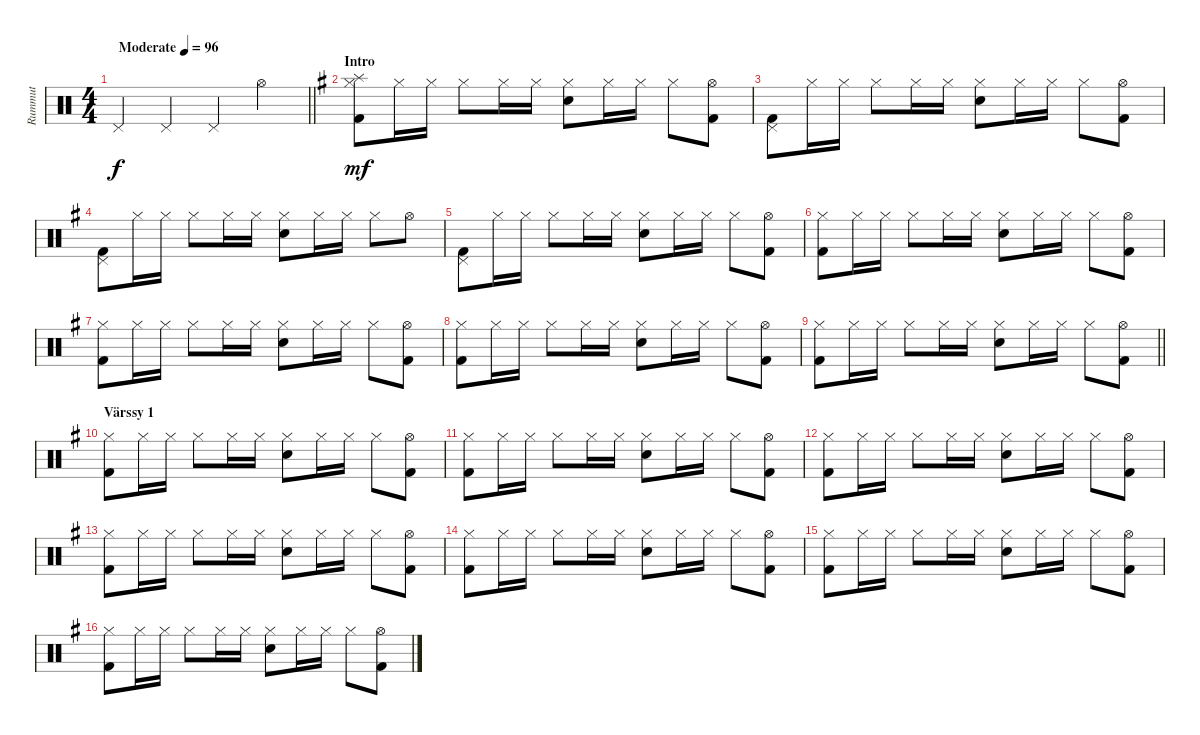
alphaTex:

\track ("Rummut" "Rummut") {instrument percussion}
\staff {score}
\articulation defaults
\ts (4 4)
\tempo (96 "Moderate")
\clef neutral
\barLineRight lightlight
\ks c "Pedal Hi-Hat (hit)".4{dy f} "Pedal Hi-Hat (hit)".4 "Pedal Hi-Hat (hit)".4 "Hi-Hat (open)".4
|
\section ("" "Intro")
\ks g
("Kick (hit) 2" "Splash (hit)" "Hi-Hat (closed)").8{dy mf} "Hi-Hat (closed)".16 "Hi-Hat (closed)".16 "Hi-Hat (closed)".8 "Hi-Hat (closed)".16 "Hi-Hat (closed)".16 ("Hi-Hat (closed)" "Snare (hit) 2").8 "Hi-Hat (closed)".16 "Hi-Hat (closed)".16 "Hi-Hat (closed)".8 ("Kick (hit) 2" "Hi-Hat (open)").8 |
("Kick (hit) 2" "Pedal Hi-Hat (hit)").8 "Hi-Hat (closed)".16 "Hi-Hat (closed)".16 "Hi-Hat (closed)".8 "Hi-Hat (closed)".16 "Hi-Hat (closed)".16 ("Hi-Hat (closed)" "Snare (hit) 2").8 "Hi-Hat (closed)".16 "Hi-Hat (closed)".16 "Hi-Hat (closed)".8 ("Kick (hit) 2" "Hi-Hat (open)").8 |
("Kick (hit) 2" "Pedal Hi-Hat (hit)").8 "Hi-Hat (closed)".16 "Hi-Hat (closed)".16 "Hi-Hat (closed)".8 "Hi-Hat (closed)".16 "Hi-Hat (closed)".16 ("Hi-Hat (closed)" "Snare (hit) 2").8 "Hi-Hat (closed)".16 "Hi-Hat (closed)".16 "Hi-Hat (closed)".8 "Hi-Hat (open)".8 |
("Kick (hit) 2" "Pedal Hi-Hat (hit)").8 "Hi-Hat (closed)".16 "Hi-Hat (closed)".16 "Hi-Hat (closed)".8 "Hi-Hat (closed)".16 "Hi-Hat (closed)".16 ("Hi-Hat (closed)" "Snare (hit) 2").8 "Hi-Hat (closed)".16 "Hi-Hat (closed)".16 "Hi-Hat (closed)".8 ("Kick (hit) 2" "Hi-Hat (open)").8 |
("Kick (hit) 2" "Hi-Hat (closed)").8 "Hi-Hat (closed)".16 "Hi-Hat (closed)".16 "Hi-Hat (closed)".8 "Hi-Hat (closed)".16 "Hi-Hat (closed)".16 ("Hi-Hat (closed)" "Snare (hit) 2").8 "Hi-Hat (closed)".16 "Hi-Hat (closed)".16 "Hi-Hat (closed)".8 ("Kick (hit) 2" "Hi-Hat (open)").8 |
("Kick (hit) 2" "Hi-Hat (closed)").8 "Hi-Hat (closed)".16 "Hi-Hat (closed)".16 "Hi-Hat (closed)".8 "Hi-Hat (closed)".16 "Hi-Hat (closed)".16 ("Hi-Hat (closed)" "Snare (hit) 2").8 "Hi-Hat (closed)".16 "Hi-Hat (closed)".16 "Hi-Hat (closed)".8 ("Kick (hit) 2" "Hi-Hat (open)").8 |
("Kick (hit) 2" "Hi-Hat (closed)").8 "Hi-Hat (closed)".16 "Hi-Hat (closed)".16 "Hi-Hat (closed)".8 "Hi-Hat (closed)".16 "Hi-Hat (closed)".16 ("Hi-Hat (closed)" "Snare (hit) 2").8 "Hi-Hat (closed)".16 "Hi-Hat (closed)".16 "Hi-Hat (closed)".8 ("Kick (hit) 2" "Hi-Hat (open)").8 |
\barLineRight lightlight
("Kick (hit) 2" "Hi-Hat (closed)").8 "Hi-Hat (closed)".16 "Hi-Hat (closed)".16 "Hi-Hat (closed)".8 "Hi-Hat (closed)".16 "Hi-Hat (closed)".16 ("Hi-Hat (closed)" "Snare (hit) 2").8 "Hi-Hat (closed)".16 "Hi-Hat (closed)".16 "Hi-Hat (closed)".8 ("Kick (hit) 2" "Hi-Hat (open)").8 |
\section ("" "Värssy 1")
("Kick (hit) 2" "Hi-Hat (closed)").8 "Hi-Hat (closed)".16 "Hi-Hat (closed)".16 "Hi-Hat (closed)".8 "Hi-Hat (closed)".16 "Hi-Hat (closed)".16 ("Hi-Hat (closed)" "Snare (hit) 2").8 "Hi-Hat (closed)".16 "Hi-Hat (closed)".16 "Hi-Hat (closed)".8 ("Kick (hit) 2" "Hi-Hat (open)").8 |
("Kick (hit) 2" "Hi-Hat (closed)").8 "Hi-Hat (closed)".16 "Hi-Hat (closed)".16 "Hi-Hat (closed)".8 "Hi-Hat (closed)".16 "Hi-Hat (closed)".16 ("Hi-Hat (closed)" "Snare (hit) 2").8 "Hi-Hat (closed)".16 "Hi-Hat (closed)".16 "Hi-Hat (closed)".8 ("Kick (hit) 2" "Hi-Hat (open)").8 |
("Kick (hit) 2" "Hi-Hat (closed)").8 "Hi-Hat (closed)".16 "Hi-Hat (closed)".16 "Hi-Hat (closed)".8 "Hi-Hat (closed)".16 "Hi-Hat (closed)".16 ("Hi-Hat (closed)" "Snare (hit) 2").8 "Hi-Hat (closed)".16 "Hi-Hat (closed)".16 "Hi-Hat (closed)".8 ("Kick (hit) 2" "Hi-Hat (open)").8 |
("Kick (hit) 2" "Hi-Hat (closed)").8 "Hi-Hat (closed)".16 "Hi-Hat (closed)".16 "Hi-Hat (closed)".8 "Hi-Hat (closed)".16 "Hi-Hat (closed)".16 ("Hi-Hat (closed)" "Snare (hit) 2").8 "Hi-Hat (closed)".16 "Hi-Hat (closed)".16 "Hi-Hat (closed)".8 ("Kick (hit) 2" "Hi-Hat (open)").8 |
("Kick (hit) 2" "Hi-Hat (closed)").8 "Hi-Hat (closed)".16 "Hi-Hat (closed)".16 "Hi-Hat (closed)".8 "Hi-Hat (closed)".16 "Hi-Hat (closed)".16 ("Hi-Hat (closed)" "Snare (hit) 2").8 "Hi-Hat (closed)".16 "Hi-Hat (closed)".16 "Hi-Hat (closed)".8 ("Kick (hit) 2" "Hi-Hat (open)").8 |
("Kick (hit) 2" "Hi-Hat (closed)").8 "Hi-Hat (closed)".16 "Hi-Hat (closed)".16 "Hi-Hat (closed)".8 "Hi-Hat (closed)".16 "Hi-Hat (closed)".16 ("Hi-Hat (closed)" "Snare (hit) 2").8 "Hi-Hat (closed)".16 "Hi-Hat (closed)".16 "Hi-Hat (closed)".8 ("Kick (hit) 2" "Hi-Hat (open)").8 |
("Kick (hit) 2" "Hi-Hat (closed)").8 "Hi-Hat (closed)".16 "Hi-Hat (closed)".16 "Hi-Hat (closed)".8 "Hi-Hat (closed)".16 "Hi-Hat (closed)".16 ("Hi-Hat (closed)" "Snare (hit) 2").8 "Hi-Hat (closed)".16 "Hi-Hat (closed)".16 "Hi-Hat (closed)".8 ("Kick (hit) 2" "Hi-Hat (open)").8
